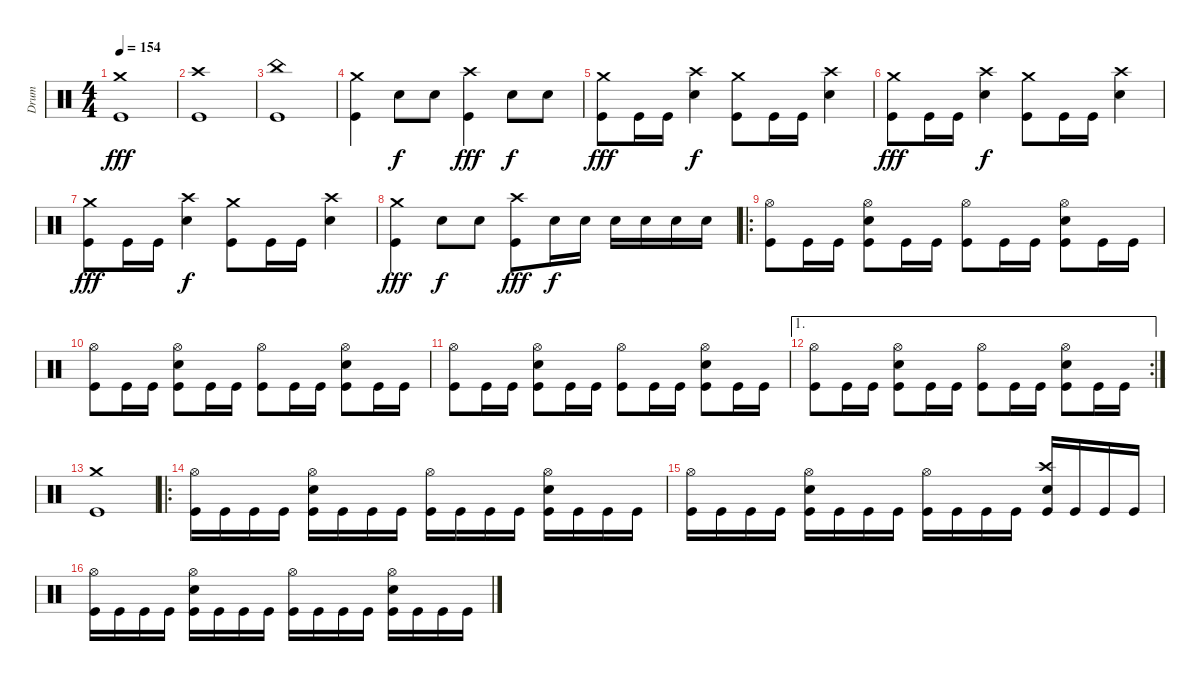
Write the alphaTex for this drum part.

\track ("Drum" "Drum") {instrument percussion}
\staff {score}
\articulation defaults
\ts (4 4)
\tempo 154
\clef neutral
\ks c
("Crash medium (hit)" "Kick (hit)").1{dy fff} |
("Crash high (hit)" "Kick (hit)").1 |
("China (hit)" "Kick (hit)").1 |
("Crash medium (hit)" "Kick (hit)").4 "Snare (hit) 2".8{dy f} "Snare (hit) 2".8 ("Crash high (hit)" "Kick (hit)").4{dy fff} "Snare (hit) 2".8{dy f} "Snare (hit) 2".8 |
("Crash medium (hit)" "Kick (hit)").8{dy fff} "Kick (hit)".16 "Kick (hit)".16 ("Crash high (hit)" "Snare (hit) 2").4{dy f} ("Crash medium (hit)" "Kick (hit)").8 "Kick (hit)".16 "Kick (hit)".16 ("Crash high (hit)" "Snare (hit) 2").4 |
("Crash medium (hit)" "Kick (hit)").8{dy fff} "Kick (hit)".16 "Kick (hit)".16 ("Crash high (hit)" "Snare (hit) 2").4{dy f} ("Crash medium (hit)" "Kick (hit)").8 "Kick (hit)".16 "Kick (hit)".16 ("Crash high (hit)" "Snare (hit) 2").4 |
("Crash medium (hit)" "Kick (hit)").8{dy fff} "Kick (hit)".16 "Kick (hit)".16 ("Crash high (hit)" "Snare (hit) 2").4{dy f} ("Crash medium (hit)" "Kick (hit)").8 "Kick (hit)".16 "Kick (hit)".16 ("Crash high (hit)" "Snare (hit) 2").4 |
("Crash medium (hit)" "Kick (hit)").4{dy fff} "Snare (hit) 2".8{dy f} "Snare (hit) 2".8 ("Crash high (hit)" "Kick (hit)").8{dy fff} "Snare (hit) 2".16{dy f} "Snare (hit) 2".16 "Snare (hit) 2".16 "Snare (hit) 2".16 "Snare (hit) 2".16 "Snare (hit) 2".16 |
\ro
("Hi-Hat (open)" "Kick (hit)").8 "Kick (hit)".16 "Kick (hit)".16 ("Hi-Hat (open)" "Snare (hit) 2" "Kick (hit)").8 "Kick (hit)".16 "Kick (hit)".16 ("Hi-Hat (open)" "Kick (hit)").8 "Kick (hit)".16 "Kick (hit)".16 ("Hi-Hat (open)" "Snare (hit) 2" "Kick (hit)").8 "Kick (hit)".16 "Kick (hit)".16 |
("Hi-Hat (open)" "Kick (hit)").8 "Kick (hit)".16 "Kick (hit)".16 ("Hi-Hat (open)" "Snare (hit) 2" "Kick (hit)").8 "Kick (hit)".16 "Kick (hit)".16 ("Hi-Hat (open)" "Kick (hit)").8 "Kick (hit)".16 "Kick (hit)".16 ("Hi-Hat (open)" "Snare (hit) 2" "Kick (hit)").8 "Kick (hit)".16 "Kick (hit)".16 |
("Hi-Hat (open)" "Kick (hit)").8 "Kick (hit)".16 "Kick (hit)".16 ("Hi-Hat (open)" "Snare (hit) 2" "Kick (hit)").8 "Kick (hit)".16 "Kick (hit)".16 ("Hi-Hat (open)" "Kick (hit)").8 "Kick (hit)".16 "Kick (hit)".16 ("Hi-Hat (open)" "Snare (hit) 2" "Kick (hit)").8 "Kick (hit)".16 "Kick (hit)".16 |
\ae 1
\rc 2
("Hi-Hat (open)" "Kick (hit)").8 "Kick (hit)".16 "Kick (hit)".16 ("Hi-Hat (open)" "Snare (hit) 2" "Kick (hit)").8 "Kick (hit)".16 "Kick (hit)".16 ("Hi-Hat (open)" "Kick (hit)").8 "Kick (hit)".16 "Kick (hit)".16 ("Hi-Hat (open)" "Snare (hit) 2" "Kick (hit)").8 "Kick (hit)".16 "Kick (hit)".16 |
("Crash medium (hit)" "Kick (hit)").1 |
\ro
("Hi-Hat (open)" "Kick (hit)").16 "Kick (hit)".16 "Kick (hit)".16 "Kick (hit)".16 ("Hi-Hat (open)" "Snare (hit) 2" "Kick (hit)").16 "Kick (hit)".16 "Kick (hit)".16 "Kick (hit)".16 ("Hi-Hat (open)" "Kick (hit)").16 "Kick (hit)".16 "Kick (hit)".16 "Kick (hit)".16 ("Hi-Hat (open)" "Snare (hit) 2" "Kick (hit)").16 "Kick (hit)".16 "Kick (hit)".16 "Kick (hit)".16 |
("Hi-Hat (open)" "Kick (hit)").16 "Kick (hit)".16 "Kick (hit)".16 "Kick (hit)".16 ("Hi-Hat (open)" "Snare (hit) 2" "Kick (hit)").16 "Kick (hit)".16 "Kick (hit)".16 "Kick (hit)".16 ("Hi-Hat (open)" "Kick (hit)").16 "Kick (hit)".16 "Kick (hit)".16 "Kick (hit)".16 ("Crash high (hit)" "Snare (hit) 2" "Kick (hit)").16 "Kick (hit)".16 "Kick (hit)".16 "Kick (hit)".16 |
("Hi-Hat (open)" "Kick (hit)").16 "Kick (hit)".16 "Kick (hit)".16 "Kick (hit)".16 ("Hi-Hat (open)" "Snare (hit) 2" "Kick (hit)").16 "Kick (hit)".16 "Kick (hit)".16 "Kick (hit)".16 ("Hi-Hat (open)" "Kick (hit)").16 "Kick (hit)".16 "Kick (hit)".16 "Kick (hit)".16 ("Hi-Hat (open)" "Snare (hit) 2" "Kick (hit)").16 "Kick (hit)".16 "Kick (hit)".16 "Kick (hit)".16
